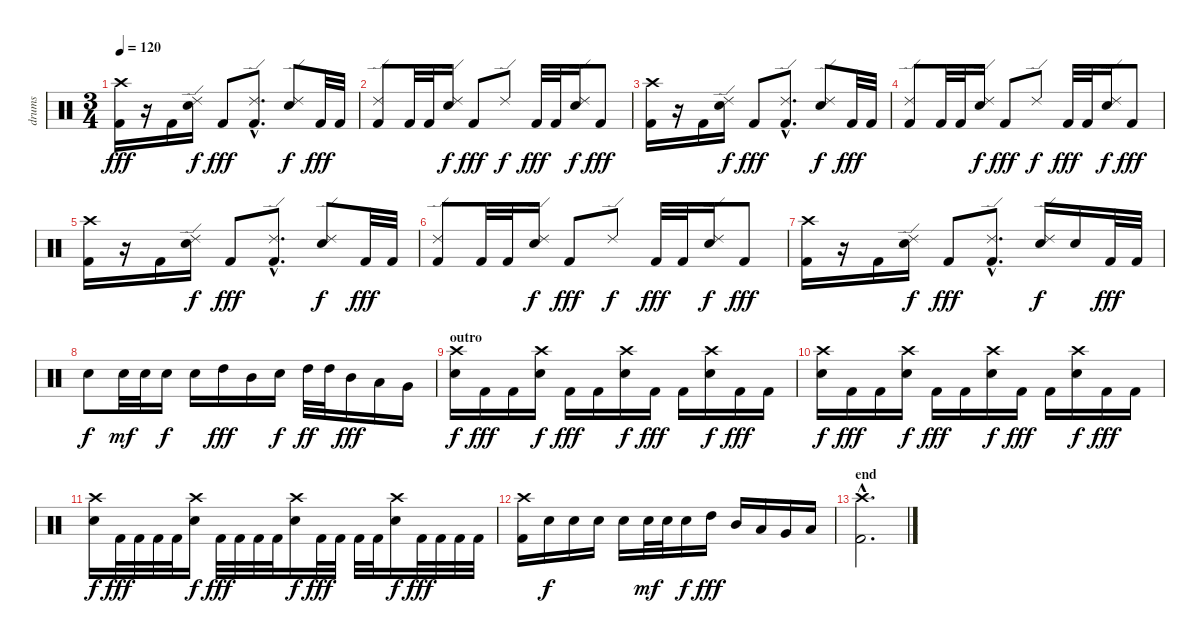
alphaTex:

\track ("drums" "drums") {instrument percussion}
\staff {score}
\articulation defaults
\ts (3 4)
\tempo 120
\clef neutral
\ks c
("Crash high (hit)" "Kick (hit) 2").16{dy fff} r.16 "Kick (hit) 2".16 ("Ride (edge) 2" "Snare (hit) 2").16{dy f} "Kick (hit) 2".8{dy fff} ("Ride (edge) 2"{hac} "Kick (hit) 2"{hac}).8{d} ("Ride (edge) 2" "Snare (hit) 2").8{dy f} "Kick (hit) 2".32{dy fff} "Kick (hit) 2".32 |
("Ride (edge) 2" "Kick (hit) 2").8 "Kick (hit) 2".32 "Kick (hit) 2".32 ("Ride (edge) 2" "Snare (hit) 2").16{dy f} "Kick (hit) 2".8{dy fff} "Ride (edge) 2".8{dy f} "Kick (hit) 2".32{dy fff} "Kick (hit) 2".32 ("Ride (edge) 2" "Snare (hit) 2").16{dy f} "Kick (hit) 2".8{dy fff} |
("Crash high (hit)" "Kick (hit) 2").16 r.16 "Kick (hit) 2".16 ("Ride (edge) 2" "Snare (hit) 2").16{dy f} "Kick (hit) 2".8{dy fff} ("Ride (edge) 2"{hac} "Kick (hit) 2"{hac}).8{d} ("Ride (edge) 2" "Snare (hit) 2").8{dy f} "Kick (hit) 2".32{dy fff} "Kick (hit) 2".32 |
("Ride (edge) 2" "Kick (hit) 2").8 "Kick (hit) 2".32 "Kick (hit) 2".32 ("Ride (edge) 2" "Snare (hit) 2").16{dy f} "Kick (hit) 2".8{dy fff} "Ride (edge) 2".8{dy f} "Kick (hit) 2".32{dy fff} "Kick (hit) 2".32 ("Ride (edge) 2" "Snare (hit) 2").16{dy f} "Kick (hit) 2".8{dy fff} |
("Crash high (hit)" "Kick (hit) 2").16 r.16 "Kick (hit) 2".16 ("Ride (edge) 2" "Snare (hit) 2").16{dy f} "Kick (hit) 2".8{dy fff} ("Ride (edge) 2"{hac} "Kick (hit) 2"{hac}).8{d} ("Ride (edge) 2" "Snare (hit) 2").8{dy f} "Kick (hit) 2".32{dy fff} "Kick (hit) 2".32 |
("Ride (edge) 2" "Kick (hit) 2").8 "Kick (hit) 2".32 "Kick (hit) 2".32 ("Ride (edge) 2" "Snare (hit) 2").16{dy f} "Kick (hit) 2".8{dy fff} "Ride (edge) 2".8{dy f} "Kick (hit) 2".32{dy fff} "Kick (hit) 2".32 ("Ride (edge) 2" "Snare (hit) 2").16{dy f} "Kick (hit) 2".8{dy fff} |
("Crash high (hit)" "Kick (hit) 2").16 r.16 "Kick (hit) 2".16 ("Ride (edge) 2" "Snare (hit) 2").16{dy f} "Kick (hit) 2".8{dy fff} ("Ride (edge) 2"{hac} "Kick (hit) 2"{hac}).8{d} ("Ride (edge) 2" "Snare (hit) 2").16{dy f} "Snare (hit) 2".16 "Kick (hit) 2".32{dy fff} "Kick (hit) 2".32 |
"Snare (hit) 2".8{dy f} "Snare (hit) 2".32{dy mf} "Snare (hit) 2".32 "Snare (hit) 2".16{dy f} "Snare (hit) 2".16 "High Tom (hit)".16{dy fff} "Mid Tom (hit)".16 "Snare (hit) 2".16{dy f} "High Tom (hit)".32{dy ff} "High Tom (hit)".32 "Mid Tom (hit)".16{dy fff} "Low Tom (hit)".16 "Very Low Tom (hit)".16 |
\section ("" "outro")
("Crash high (hit)" "Snare (hit) 2").16{dy f} "Kick (hit) 2".16{dy fff} "Kick (hit) 2".16 ("Crash high (hit)" "Snare (hit) 2").16{dy f} "Kick (hit) 2".16{dy fff} "Kick (hit) 2".16 ("Crash high (hit)" "Snare (hit) 2").16{dy f} "Kick (hit) 2".16{dy fff} "Kick (hit) 2".16 ("Crash high (hit)" "Snare (hit) 2").16{dy f} "Kick (hit) 2".16{dy fff} "Kick (hit) 2".16 |
("Crash high (hit)" "Snare (hit) 2").16{dy f} "Kick (hit) 2".16{dy fff} "Kick (hit) 2".16 ("Crash high (hit)" "Snare (hit) 2").16{dy f} "Kick (hit) 2".16{dy fff} "Kick (hit) 2".16 ("Crash high (hit)" "Snare (hit) 2").16{dy f} "Kick (hit) 2".16{dy fff} "Kick (hit) 2".16 ("Crash high (hit)" "Snare (hit) 2").16{dy f} "Kick (hit) 2".16{dy fff} "Kick (hit) 2".16 |
("Crash high (hit)" "Snare (hit) 2").16{dy f} "Kick (hit) 2".32{dy fff} "Kick (hit) 2".32 "Kick (hit) 2".32 "Kick (hit) 2".32 ("Crash high (hit)" "Snare (hit) 2").16{dy f} "Kick (hit) 2".32{dy fff} "Kick (hit) 2".32 "Kick (hit) 2".32 "Kick (hit) 2".32 ("Crash high (hit)" "Snare (hit) 2").16{dy f} "Kick (hit) 2".32{dy fff} "Kick (hit) 2".32 "Kick (hit) 2".32 "Kick (hit) 2".32 ("Crash high (hit)" "Snare (hit) 2").16{dy f} "Kick (hit) 2".32{dy fff} "Kick (hit) 2".32 "Kick (hit) 2".32 "Kick (hit) 2".32 |
("Crash high (hit)" "Kick (hit) 2").16 "Snare (hit) 2".16{dy f} "Snare (hit) 2".16 "Snare (hit) 2".16 "Snare (hit) 2".16 "Snare (hit) 2".32{dy mf} "Snare (hit) 2".32 "Snare (hit) 2".16{dy f} "High Tom (hit)".16{dy fff} "Mid Tom (hit)".16 "Low Tom (hit)".16 "Very Low Tom (hit)".16 "Low Floor Tom (hit)".16 |
\section ("" "end")
("Crash high (hit)"{hac} "Kick (hit) 2"{hac}).2{d}
